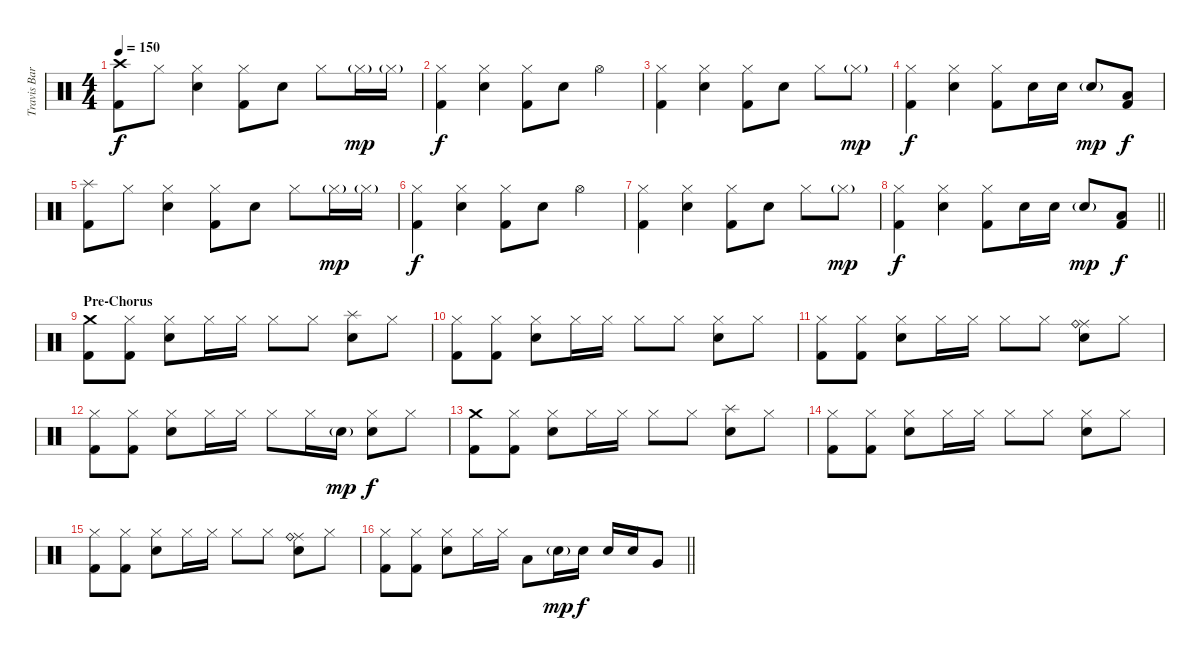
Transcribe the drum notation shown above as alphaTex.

\track ("Travis Barker - Drums" "Travis Bar") {instrument percussion}
\staff {score}
\articulation defaults
\ts (4 4)
\tempo 150
\clef neutral
\ks c
("Crash high (hit)" "Kick (hit) 2").8{dy f} "Hi-Hat (closed)".8 ("Hi-Hat (closed)" "Electric Snare (hit)").4 ("Hi-Hat (closed)" "Kick (hit) 2").8 "Electric Snare (hit)".8 "Hi-Hat (closed)".8 "Hi-Hat (closed)"{g}.16{dy mp} "Hi-Hat (closed)"{g}.16 |
("Hi-Hat (closed)" "Kick (hit) 2").4{dy f} ("Hi-Hat (closed)" "Electric Snare (hit)").4 ("Hi-Hat (closed)" "Kick (hit) 2").8 "Electric Snare (hit)".8 "Hi-Hat (open)".4 |
("Hi-Hat (closed)" "Kick (hit) 2").4 ("Hi-Hat (closed)" "Electric Snare (hit)").4 ("Hi-Hat (closed)" "Kick (hit) 2").8 "Electric Snare (hit)".8 "Hi-Hat (closed)".8 "Hi-Hat (closed)"{g}.8{dy mp} |
("Hi-Hat (closed)" "Kick (hit) 2").4{dy f} ("Hi-Hat (closed)" "Electric Snare (hit)").4 ("Hi-Hat (closed)" "Kick (hit) 2").8 "Electric Snare (hit)".16 "Electric Snare (hit)".16 "Electric Snare (hit)"{g}.8{dy mp} ("Low Tom (hit)" "Kick (hit) 2").8{dy f} |
("Splash (hit)" "Kick (hit) 2").8 "Hi-Hat (closed)".8 ("Hi-Hat (closed)" "Electric Snare (hit)").4 ("Hi-Hat (closed)" "Kick (hit) 2").8 "Electric Snare (hit)".8 "Hi-Hat (closed)".8 "Hi-Hat (closed)"{g}.16{dy mp} "Hi-Hat (closed)"{g}.16 |
("Hi-Hat (closed)" "Kick (hit) 2").4{dy f} ("Hi-Hat (closed)" "Electric Snare (hit)").4 ("Hi-Hat (closed)" "Kick (hit) 2").8 "Electric Snare (hit)".8 "Hi-Hat (open)".4 |
("Hi-Hat (closed)" "Kick (hit) 2").4 ("Hi-Hat (closed)" "Electric Snare (hit)").4 ("Hi-Hat (closed)" "Kick (hit) 2").8 "Electric Snare (hit)".8 "Hi-Hat (closed)".8 "Hi-Hat (closed)"{g}.8{dy mp} |
\barLineRight lightlight
("Hi-Hat (closed)" "Kick (hit) 2").4{dy f} ("Hi-Hat (closed)" "Electric Snare (hit)").4 ("Hi-Hat (closed)" "Kick (hit) 2").8 "Electric Snare (hit)".16 "Electric Snare (hit)".16 "Electric Snare (hit)"{g}.8{dy mp} ("Low Tom (hit)" "Kick (hit) 2").8{dy f} |
\section ("" "Pre-Chorus")
("Crash medium (hit)" "Kick (hit) 2").8 ("Hi-Hat (closed)" "Kick (hit) 2").8 ("Hi-Hat (closed)" "Electric Snare (hit)").8 "Hi-Hat (closed)".16 "Hi-Hat (closed)".16 "Hi-Hat (closed)".8 "Hi-Hat (closed)".8 ("Splash (hit)" "Electric Snare (hit)").8 "Hi-Hat (closed)".8 |
("Hi-Hat (closed)" "Kick (hit) 2").8 ("Hi-Hat (closed)" "Kick (hit) 2").8 ("Hi-Hat (closed)" "Electric Snare (hit)").8 "Hi-Hat (closed)".16 "Hi-Hat (closed)".16 "Hi-Hat (closed)".8 "Hi-Hat (closed)".8 ("Hi-Hat (closed)" "Electric Snare (hit)").8 "Hi-Hat (closed)".8 |
("Hi-Hat (closed)" "Kick (hit) 2").8 ("Hi-Hat (closed)" "Kick (hit) 2").8 ("Hi-Hat (closed)" "Electric Snare (hit)").8 "Hi-Hat (closed)".16 "Hi-Hat (closed)".16 "Hi-Hat (closed)".8 "Hi-Hat (closed)".8 ("Ride (middle)" "Ride (bell)" "Electric Snare (hit)").8 "Hi-Hat (closed)".8 |
("Hi-Hat (closed)" "Kick (hit) 2").8 ("Hi-Hat (closed)" "Kick (hit) 2").8 ("Hi-Hat (closed)" "Electric Snare (hit)").8 "Hi-Hat (closed)".16 "Hi-Hat (closed)".16 "Hi-Hat (closed)".8 "Hi-Hat (closed)".16 "Electric Snare (hit)"{g}.16{dy mp} ("Hi-Hat (closed)" "Electric Snare (hit)").8{dy f} "Hi-Hat (closed)".8 |
("Crash medium (hit)" "Kick (hit) 2").8 ("Hi-Hat (closed)" "Kick (hit) 2").8 ("Hi-Hat (closed)" "Electric Snare (hit)").8 "Hi-Hat (closed)".16 "Hi-Hat (closed)".16 "Hi-Hat (closed)".8 "Hi-Hat (closed)".8 ("Splash (hit)" "Electric Snare (hit)").8 "Hi-Hat (closed)".8 |
("Hi-Hat (closed)" "Kick (hit) 2").8 ("Hi-Hat (closed)" "Kick (hit) 2").8 ("Hi-Hat (closed)" "Electric Snare (hit)").8 "Hi-Hat (closed)".16 "Hi-Hat (closed)".16 "Hi-Hat (closed)".8 "Hi-Hat (closed)".8 ("Hi-Hat (closed)" "Electric Snare (hit)").8 "Hi-Hat (closed)".8 |
("Hi-Hat (closed)" "Kick (hit) 2").8 ("Hi-Hat (closed)" "Kick (hit) 2").8 ("Hi-Hat (closed)" "Electric Snare (hit)").8 "Hi-Hat (closed)".16 "Hi-Hat (closed)".16 "Hi-Hat (closed)".8 "Hi-Hat (closed)".8 ("Ride (middle)" "Ride (bell)" "Electric Snare (hit)").8 "Hi-Hat (closed)".8 |
\barLineRight lightlight
("Hi-Hat (closed)" "Kick (hit) 2").8 ("Hi-Hat (closed)" "Kick (hit) 2").8 ("Hi-Hat (closed)" "Electric Snare (hit)").8 "Hi-Hat (closed)".16 "Hi-Hat (closed)".16 "Low Tom (hit)".8 "Electric Snare (hit)"{g}.16{dy mp} "Electric Snare (hit)".16{dy f} "Electric Snare (hit)".16 "Electric Snare (hit)".16 "Very Low Tom (hit)".8
